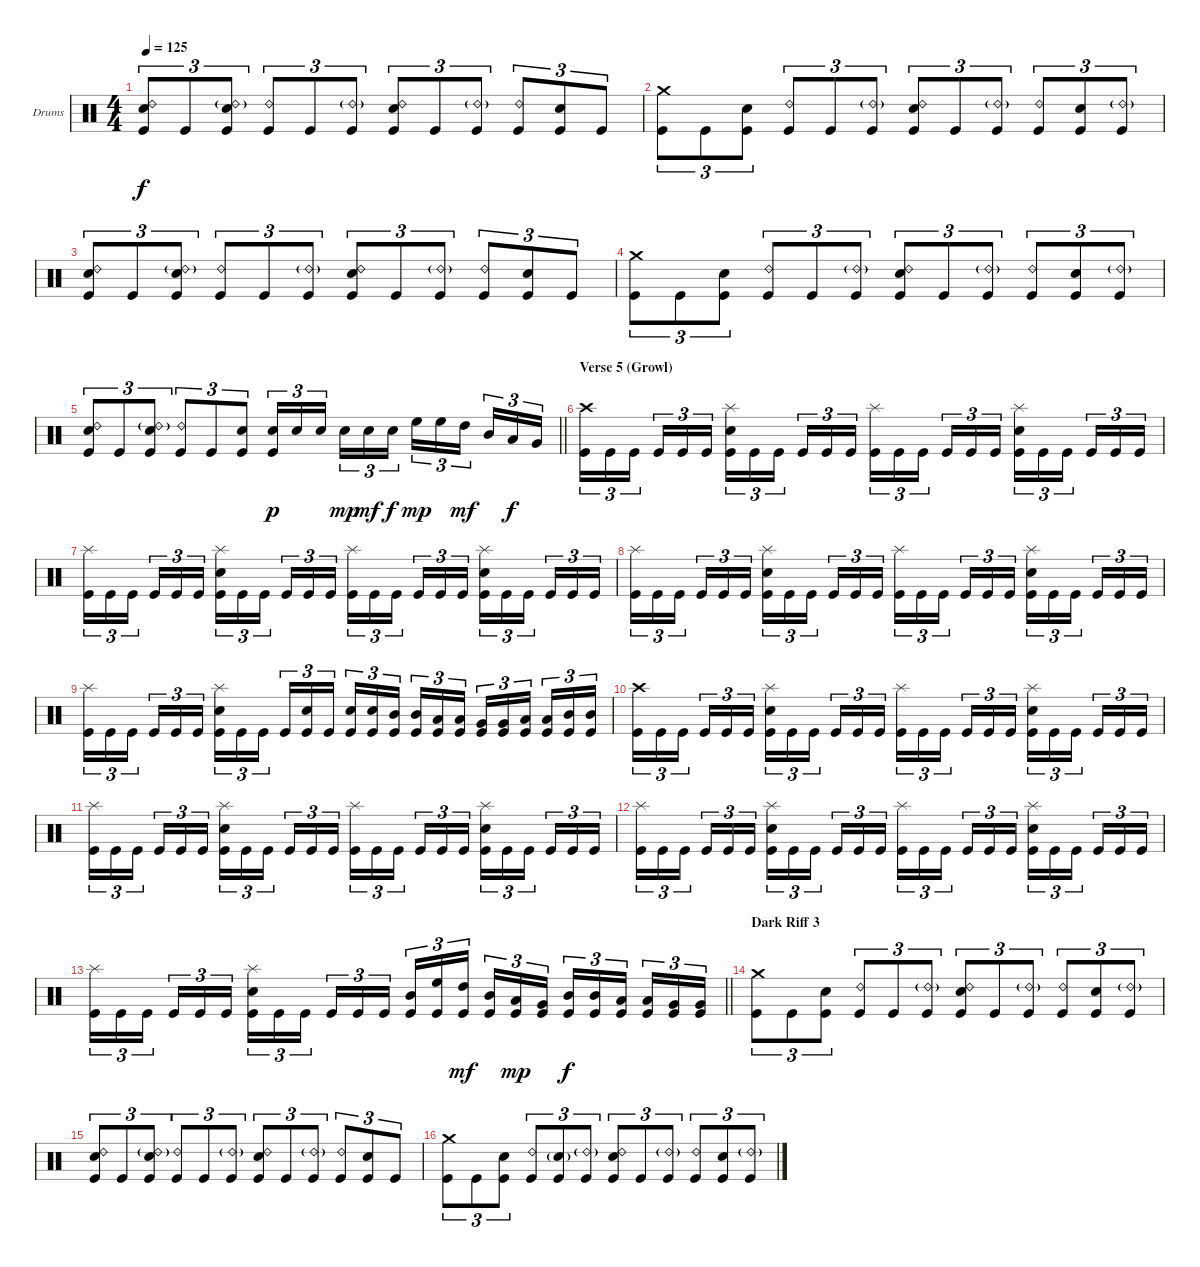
\bracketExtendMode nobrackets
\firstSystemTrackNameOrientation horizontal
\otherSystemsTrackNameOrientation horizontal
\track ("Drumkit" "Drums") {instrument percussion}
\staff {score}
\articulation defaults
\ts (4 4)
\tempo 125
\clef neutral
\ks c
("Ride (bell) 2" "Snare (hit) 2" "Kick (hit)").8{tu (3 2) dy f} "Kick (hit)".8{tu (3 2)} ("Ride (bell) 2"{g} "Snare (hit) 2" "Kick (hit)").8{tu (3 2)} ("Ride (bell) 2" "Kick (hit)").8{tu (3 2)} "Kick (hit)".8{tu (3 2)} ("Ride (bell) 2"{g} "Kick (hit)").8{tu (3 2)} ("Ride (bell) 2" "Snare (hit) 2" "Kick (hit)").8{tu (3 2)} "Kick (hit)".8{tu (3 2)} ("Ride (bell) 2"{g} "Kick (hit)").8{tu (3 2)} ("Ride (bell) 2" "Kick (hit)").8{tu (3 2)} ("Snare (hit) 2" "Kick (hit)").8{tu (3 2)} "Kick (hit)".8{tu (3 2)} |
("Crash medium (hit)" "Kick (hit)").8{tu (3 2)} "Kick (hit)".8{tu (3 2)} ("Snare (hit) 2" "Kick (hit)").8{tu (3 2)} ("Ride (bell) 2" "Kick (hit)").8{tu (3 2)} "Kick (hit)".8{tu (3 2)} ("Ride (bell) 2"{g} "Kick (hit)").8{tu (3 2)} ("Ride (bell) 2" "Snare (hit) 2" "Kick (hit)").8{tu (3 2)} "Kick (hit)".8{tu (3 2)} ("Ride (bell) 2"{g} "Kick (hit)").8{tu (3 2)} ("Ride (bell) 2" "Kick (hit)").8{tu (3 2)} ("Snare (hit) 2" "Kick (hit)").8{tu (3 2)} ("Ride (bell) 2"{g} "Kick (hit)").8{tu (3 2)} |
("Ride (bell) 2" "Snare (hit) 2" "Kick (hit)").8{tu (3 2)} "Kick (hit)".8{tu (3 2)} ("Ride (bell) 2"{g} "Snare (hit) 2" "Kick (hit)").8{tu (3 2)} ("Ride (bell) 2" "Kick (hit)").8{tu (3 2)} "Kick (hit)".8{tu (3 2)} ("Ride (bell) 2"{g} "Kick (hit)").8{tu (3 2)} ("Ride (bell) 2" "Snare (hit) 2" "Kick (hit)").8{tu (3 2)} "Kick (hit)".8{tu (3 2)} ("Ride (bell) 2"{g} "Kick (hit)").8{tu (3 2)} ("Ride (bell) 2" "Kick (hit)").8{tu (3 2)} ("Snare (hit) 2" "Kick (hit)").8{tu (3 2)} "Kick (hit)".8{tu (3 2)} |
("Crash medium (hit)" "Kick (hit)").8{tu (3 2)} "Kick (hit)".8{tu (3 2)} ("Snare (hit) 2" "Kick (hit)").8{tu (3 2)} ("Ride (bell) 2" "Kick (hit)").8{tu (3 2)} "Kick (hit)".8{tu (3 2)} ("Ride (bell) 2"{g} "Kick (hit)").8{tu (3 2)} ("Ride (bell) 2" "Snare (hit) 2" "Kick (hit)").8{tu (3 2)} "Kick (hit)".8{tu (3 2)} ("Ride (bell) 2"{g} "Kick (hit)").8{tu (3 2)} ("Ride (bell) 2" "Kick (hit)").8{tu (3 2)} ("Snare (hit) 2" "Kick (hit)").8{tu (3 2)} ("Ride (bell) 2"{g} "Kick (hit)").8{tu (3 2)} |
\barLineRight lightlight
("Ride (bell) 2" "Snare (hit) 2" "Kick (hit)").8{tu (3 2)} "Kick (hit)".8{tu (3 2)} ("Ride (bell) 2"{g} "Snare (hit) 2" "Kick (hit)").8{tu (3 2)} ("Ride (bell) 2" "Kick (hit)").8{tu (3 2)} "Kick (hit)".8{tu (3 2)} ("Snare (hit) 2" "Kick (hit)").8{tu (3 2)} ("Snare (hit) 2" "Kick (hit)").16{tu (3 2) dy p} "Snare (hit) 2".16{tu (3 2)} "Snare (hit) 2".16{tu (3 2)} "Snare (hit) 2".16{tu (3 2) dy mp} "Snare (hit) 2".16{tu (3 2) dy mf} "Snare (hit) 2".16{tu (3 2) dy f} "High Floor Tom (hit)".16{tu (3 2) dy mp} "High Floor Tom (hit)".16{tu (3 2)} "High Tom (hit)".16{tu (3 2) dy mf} "Mid Tom (hit)".16{tu (3 2)} "Low Tom (hit)".16{tu (3 2) dy f} "Very Low Tom (hit)".16{tu (3 2)} |
\section ("" "Verse 5 (Growl)")
("Crash high (hit)" "Kick (hit)").16{tu (3 2)} "Kick (hit)".16{tu (3 2)} "Kick (hit)".16{tu (3 2)} "Kick (hit)".16{tu (3 2)} "Kick (hit)".16{tu (3 2)} "Kick (hit)".16{tu (3 2)} ("Splash (hit)" "Snare (hit) 2" "Kick (hit)").16{tu (3 2)} "Kick (hit)".16{tu (3 2)} "Kick (hit)".16{tu (3 2)} "Kick (hit)".16{tu (3 2)} "Kick (hit)".16{tu (3 2)} "Kick (hit)".16{tu (3 2)} ("Splash (hit)" "Kick (hit)").16{tu (3 2)} "Kick (hit)".16{tu (3 2)} "Kick (hit)".16{tu (3 2)} "Kick (hit)".16{tu (3 2)} "Kick (hit)".16{tu (3 2)} "Kick (hit)".16{tu (3 2)} ("Splash (hit)" "Snare (hit) 2" "Kick (hit)").16{tu (3 2)} "Kick (hit)".16{tu (3 2)} "Kick (hit)".16{tu (3 2)} "Kick (hit)".16{tu (3 2)} "Kick (hit)".16{tu (3 2)} "Kick (hit)".16{tu (3 2)} |
("Splash (hit)" "Kick (hit)").16{tu (3 2)} "Kick (hit)".16{tu (3 2)} "Kick (hit)".16{tu (3 2)} "Kick (hit)".16{tu (3 2)} "Kick (hit)".16{tu (3 2)} "Kick (hit)".16{tu (3 2)} ("Splash (hit)" "Snare (hit) 2" "Kick (hit)").16{tu (3 2)} "Kick (hit)".16{tu (3 2)} "Kick (hit)".16{tu (3 2)} "Kick (hit)".16{tu (3 2)} "Kick (hit)".16{tu (3 2)} "Kick (hit)".16{tu (3 2)} ("Splash (hit)" "Kick (hit)").16{tu (3 2)} "Kick (hit)".16{tu (3 2)} "Kick (hit)".16{tu (3 2)} "Kick (hit)".16{tu (3 2)} "Kick (hit)".16{tu (3 2)} "Kick (hit)".16{tu (3 2)} ("Splash (hit)" "Snare (hit) 2" "Kick (hit)").16{tu (3 2)} "Kick (hit)".16{tu (3 2)} "Kick (hit)".16{tu (3 2)} "Kick (hit)".16{tu (3 2)} "Kick (hit)".16{tu (3 2)} "Kick (hit)".16{tu (3 2)} |
("Splash (hit)" "Kick (hit)").16{tu (3 2)} "Kick (hit)".16{tu (3 2)} "Kick (hit)".16{tu (3 2)} "Kick (hit)".16{tu (3 2)} "Kick (hit)".16{tu (3 2)} "Kick (hit)".16{tu (3 2)} ("Splash (hit)" "Snare (hit) 2" "Kick (hit)").16{tu (3 2)} "Kick (hit)".16{tu (3 2)} "Kick (hit)".16{tu (3 2)} "Kick (hit)".16{tu (3 2)} "Kick (hit)".16{tu (3 2)} "Kick (hit)".16{tu (3 2)} ("Splash (hit)" "Kick (hit)").16{tu (3 2)} "Kick (hit)".16{tu (3 2)} "Kick (hit)".16{tu (3 2)} "Kick (hit)".16{tu (3 2)} "Kick (hit)".16{tu (3 2)} "Kick (hit)".16{tu (3 2)} ("Splash (hit)" "Snare (hit) 2" "Kick (hit)").16{tu (3 2)} "Kick (hit)".16{tu (3 2)} "Kick (hit)".16{tu (3 2)} "Kick (hit)".16{tu (3 2)} "Kick (hit)".16{tu (3 2)} "Kick (hit)".16{tu (3 2)} |
("Splash (hit)" "Kick (hit)").16{tu (3 2)} "Kick (hit)".16{tu (3 2)} "Kick (hit)".16{tu (3 2)} "Kick (hit)".16{tu (3 2)} "Kick (hit)".16{tu (3 2)} "Kick (hit)".16{tu (3 2)} ("Splash (hit)" "Snare (hit) 2" "Kick (hit)").16{tu (3 2)} "Kick (hit)".16{tu (3 2)} "Kick (hit)".16{tu (3 2)} "Kick (hit)".16{tu (3 2)} ("Snare (hit) 2" "Kick (hit)").16{tu (3 2)} "Kick (hit)".16{tu (3 2)} ("Snare (hit) 2" "Kick (hit)").16{tu (3 2)} ("Snare (hit) 2" "Kick (hit)").16{tu (3 2)} ("Mid Tom (hit)" "Kick (hit)").16{tu (3 2)} ("Mid Tom (hit)" "Kick (hit)").16{tu (3 2)} ("Low Tom (hit)" "Kick (hit)").16{tu (3 2)} ("Low Tom (hit)" "Kick (hit)").16{tu (3 2)} ("Very Low Tom (hit)" "Kick (hit)").16{tu (3 2)} ("Very Low Tom (hit)" "Kick (hit)").16{tu (3 2)} ("Low Tom (hit)" "Kick (hit)").16{tu (3 2)} ("Low Tom (hit)" "Kick (hit)").16{tu (3 2)} ("Mid Tom (hit)" "Kick (hit)").16{tu (3 2)} ("Mid Tom (hit)" "Kick (hit)").16{tu (3 2)} |
("Crash high (hit)" "Kick (hit)").16{tu (3 2)} "Kick (hit)".16{tu (3 2)} "Kick (hit)".16{tu (3 2)} "Kick (hit)".16{tu (3 2)} "Kick (hit)".16{tu (3 2)} "Kick (hit)".16{tu (3 2)} ("Splash (hit)" "Snare (hit) 2" "Kick (hit)").16{tu (3 2)} "Kick (hit)".16{tu (3 2)} "Kick (hit)".16{tu (3 2)} "Kick (hit)".16{tu (3 2)} "Kick (hit)".16{tu (3 2)} "Kick (hit)".16{tu (3 2)} ("Splash (hit)" "Kick (hit)").16{tu (3 2)} "Kick (hit)".16{tu (3 2)} "Kick (hit)".16{tu (3 2)} "Kick (hit)".16{tu (3 2)} "Kick (hit)".16{tu (3 2)} "Kick (hit)".16{tu (3 2)} ("Splash (hit)" "Snare (hit) 2" "Kick (hit)").16{tu (3 2)} "Kick (hit)".16{tu (3 2)} "Kick (hit)".16{tu (3 2)} "Kick (hit)".16{tu (3 2)} "Kick (hit)".16{tu (3 2)} "Kick (hit)".16{tu (3 2)} |
("Splash (hit)" "Kick (hit)").16{tu (3 2)} "Kick (hit)".16{tu (3 2)} "Kick (hit)".16{tu (3 2)} "Kick (hit)".16{tu (3 2)} "Kick (hit)".16{tu (3 2)} "Kick (hit)".16{tu (3 2)} ("Splash (hit)" "Snare (hit) 2" "Kick (hit)").16{tu (3 2)} "Kick (hit)".16{tu (3 2)} "Kick (hit)".16{tu (3 2)} "Kick (hit)".16{tu (3 2)} "Kick (hit)".16{tu (3 2)} "Kick (hit)".16{tu (3 2)} ("Splash (hit)" "Kick (hit)").16{tu (3 2)} "Kick (hit)".16{tu (3 2)} "Kick (hit)".16{tu (3 2)} "Kick (hit)".16{tu (3 2)} "Kick (hit)".16{tu (3 2)} "Kick (hit)".16{tu (3 2)} ("Splash (hit)" "Snare (hit) 2" "Kick (hit)").16{tu (3 2)} "Kick (hit)".16{tu (3 2)} "Kick (hit)".16{tu (3 2)} "Kick (hit)".16{tu (3 2)} "Kick (hit)".16{tu (3 2)} "Kick (hit)".16{tu (3 2)} |
("Splash (hit)" "Kick (hit)").16{tu (3 2)} "Kick (hit)".16{tu (3 2)} "Kick (hit)".16{tu (3 2)} "Kick (hit)".16{tu (3 2)} "Kick (hit)".16{tu (3 2)} "Kick (hit)".16{tu (3 2)} ("Splash (hit)" "Snare (hit) 2" "Kick (hit)").16{tu (3 2)} "Kick (hit)".16{tu (3 2)} "Kick (hit)".16{tu (3 2)} "Kick (hit)".16{tu (3 2)} "Kick (hit)".16{tu (3 2)} "Kick (hit)".16{tu (3 2)} ("Splash (hit)" "Kick (hit)").16{tu (3 2)} "Kick (hit)".16{tu (3 2)} "Kick (hit)".16{tu (3 2)} "Kick (hit)".16{tu (3 2)} "Kick (hit)".16{tu (3 2)} "Kick (hit)".16{tu (3 2)} ("Splash (hit)" "Snare (hit) 2" "Kick (hit)").16{tu (3 2)} "Kick (hit)".16{tu (3 2)} "Kick (hit)".16{tu (3 2)} "Kick (hit)".16{tu (3 2)} "Kick (hit)".16{tu (3 2)} "Kick (hit)".16{tu (3 2)} |
\barLineRight lightlight
("Splash (hit)" "Kick (hit)").16{tu (3 2)} "Kick (hit)".16{tu (3 2)} "Kick (hit)".16{tu (3 2)} "Kick (hit)".16{tu (3 2)} "Kick (hit)".16{tu (3 2)} "Kick (hit)".16{tu (3 2)} ("Splash (hit)" "Snare (hit) 2" "Kick (hit)").16{tu (3 2)} "Kick (hit)".16{tu (3 2)} "Kick (hit)".16{tu (3 2)} "Kick (hit)".16{tu (3 2)} "Kick (hit)".16{tu (3 2)} "Kick (hit)".16{tu (3 2)} ("Mid Tom (hit)" "Kick (hit)").16{tu (3 2)} ("High Floor Tom (hit)" "Kick (hit)").16{tu (3 2)} ("High Tom (hit)" "Kick (hit)").16{tu (3 2) dy mf} ("Mid Tom (hit)" "Kick (hit)").16{tu (3 2)} ("Low Tom (hit)" "Kick (hit)").16{tu (3 2) dy mp} ("Very Low Tom (hit)" "Kick (hit)").16{tu (3 2)} ("Mid Tom (hit)" "Kick (hit)").16{tu (3 2) dy f} ("Mid Tom (hit)" "Kick (hit)").16{tu (3 2)} ("Low Tom (hit)" "Kick (hit)").16{tu (3 2)} ("Low Tom (hit)" "Kick (hit)").16{tu (3 2)} ("Very Low Tom (hit)" "Kick (hit)").16{tu (3 2)} ("Very Low Tom (hit)" "Kick (hit)").16{tu (3 2)} |
\section ("" "Dark Riff 3")
("Crash medium (hit)" "Kick (hit)").8{tu (3 2)} "Kick (hit)".8{tu (3 2)} ("Snare (hit) 2" "Kick (hit)").8{tu (3 2)} ("Ride (bell) 2" "Kick (hit)").8{tu (3 2)} "Kick (hit)".8{tu (3 2)} ("Ride (bell) 2"{g} "Kick (hit)").8{tu (3 2)} ("Ride (bell) 2" "Snare (hit) 2" "Kick (hit)").8{tu (3 2)} "Kick (hit)".8{tu (3 2)} ("Ride (bell) 2"{g} "Kick (hit)").8{tu (3 2)} ("Ride (bell) 2" "Kick (hit)").8{tu (3 2)} ("Snare (hit) 2" "Kick (hit)").8{tu (3 2)} ("Ride (bell) 2"{g} "Kick (hit)").8{tu (3 2)} |
("Ride (bell) 2" "Snare (hit) 2" "Kick (hit)").8{tu (3 2)} "Kick (hit)".8{tu (3 2)} ("Ride (bell) 2"{g} "Snare (hit) 2" "Kick (hit)").8{tu (3 2)} ("Ride (bell) 2" "Kick (hit)").8{tu (3 2)} "Kick (hit)".8{tu (3 2)} ("Ride (bell) 2"{g} "Kick (hit)").8{tu (3 2)} ("Ride (bell) 2" "Snare (hit) 2" "Kick (hit)").8{tu (3 2)} "Kick (hit)".8{tu (3 2)} ("Ride (bell) 2"{g} "Kick (hit)").8{tu (3 2)} ("Ride (bell) 2" "Kick (hit)").8{tu (3 2)} ("Snare (hit) 2" "Kick (hit)").8{tu (3 2)} "Kick (hit)".8{tu (3 2)} |
("Crash medium (hit)" "Kick (hit)").8{tu (3 2)} "Kick (hit)".8{tu (3 2)} ("Snare (hit) 2" "Kick (hit)").8{tu (3 2)} ("Ride (bell) 2" "Kick (hit)").8{tu (3 2)} ("Snare (hit) 2"{g} "Kick (hit)").8{tu (3 2)} ("Ride (bell) 2"{g} "Kick (hit)").8{tu (3 2)} ("Ride (bell) 2" "Snare (hit) 2" "Kick (hit)").8{tu (3 2)} "Kick (hit)".8{tu (3 2)} ("Ride (bell) 2"{g} "Kick (hit)").8{tu (3 2)} ("Ride (bell) 2" "Kick (hit)").8{tu (3 2)} ("Snare (hit) 2" "Kick (hit)").8{tu (3 2)} ("Ride (bell) 2"{g} "Kick (hit)").8{tu (3 2)}
